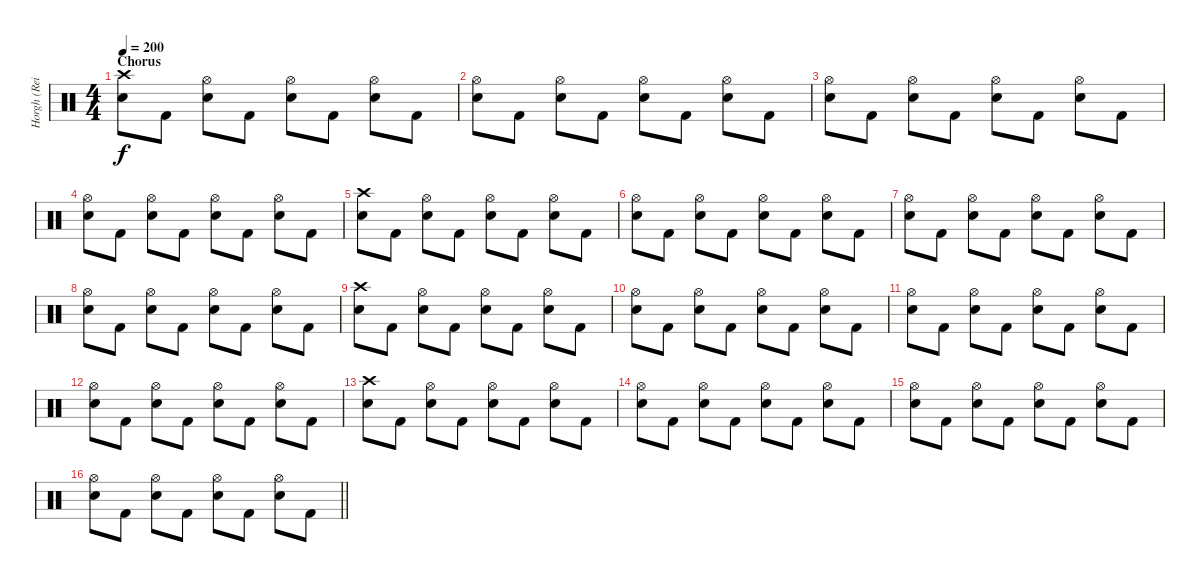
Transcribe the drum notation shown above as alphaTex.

\track ("Horgh (Reidar Horghagen)" "Horgh (Rei") {instrument percussion}
\staff {score}
\articulation defaults
\ts (4 4)
\section ("" "Chorus")
\tempo 200
\clef neutral
\ks c
("Crash high (hit)" "Snare (hit) 2").8{dy f} "Kick (hit) 2".8 ("Hi-Hat (open)" "Snare (hit) 2").8 "Kick (hit) 2".8 ("Hi-Hat (open)" "Snare (hit) 2").8 "Kick (hit) 2".8 ("Hi-Hat (open)" "Snare (hit) 2").8 "Kick (hit) 2".8 |
("Hi-Hat (open)" "Snare (hit) 2").8 "Kick (hit) 2".8 ("Hi-Hat (open)" "Snare (hit) 2").8 "Kick (hit) 2".8 ("Hi-Hat (open)" "Snare (hit) 2").8 "Kick (hit) 2".8 ("Hi-Hat (open)" "Snare (hit) 2").8 "Kick (hit) 2".8 |
("Hi-Hat (open)" "Snare (hit) 2").8 "Kick (hit) 2".8 ("Hi-Hat (open)" "Snare (hit) 2").8 "Kick (hit) 2".8 ("Hi-Hat (open)" "Snare (hit) 2").8 "Kick (hit) 2".8 ("Hi-Hat (open)" "Snare (hit) 2").8 "Kick (hit) 2".8 |
("Hi-Hat (open)" "Snare (hit) 2").8 "Kick (hit) 2".8 ("Hi-Hat (open)" "Snare (hit) 2").8 "Kick (hit) 2".8 ("Hi-Hat (open)" "Snare (hit) 2").8 "Kick (hit) 2".8 ("Hi-Hat (open)" "Snare (hit) 2").8 "Kick (hit) 2".8 |
("Crash high (hit)" "Snare (hit) 2").8 "Kick (hit) 2".8 ("Hi-Hat (open)" "Snare (hit) 2").8 "Kick (hit) 2".8 ("Hi-Hat (open)" "Snare (hit) 2").8 "Kick (hit) 2".8 ("Hi-Hat (open)" "Snare (hit) 2").8 "Kick (hit) 2".8 |
("Hi-Hat (open)" "Snare (hit) 2").8 "Kick (hit) 2".8 ("Hi-Hat (open)" "Snare (hit) 2").8 "Kick (hit) 2".8 ("Hi-Hat (open)" "Snare (hit) 2").8 "Kick (hit) 2".8 ("Hi-Hat (open)" "Snare (hit) 2").8 "Kick (hit) 2".8 |
("Hi-Hat (open)" "Snare (hit) 2").8 "Kick (hit) 2".8 ("Hi-Hat (open)" "Snare (hit) 2").8 "Kick (hit) 2".8 ("Hi-Hat (open)" "Snare (hit) 2").8 "Kick (hit) 2".8 ("Hi-Hat (open)" "Snare (hit) 2").8 "Kick (hit) 2".8 |
("Hi-Hat (open)" "Snare (hit) 2").8 "Kick (hit) 2".8 ("Hi-Hat (open)" "Snare (hit) 2").8 "Kick (hit) 2".8 ("Hi-Hat (open)" "Snare (hit) 2").8 "Kick (hit) 2".8 ("Hi-Hat (open)" "Snare (hit) 2").8 "Kick (hit) 2".8 |
("Crash high (hit)" "Snare (hit) 2").8 "Kick (hit) 2".8 ("Hi-Hat (open)" "Snare (hit) 2").8 "Kick (hit) 2".8 ("Hi-Hat (open)" "Snare (hit) 2").8 "Kick (hit) 2".8 ("Hi-Hat (open)" "Snare (hit) 2").8 "Kick (hit) 2".8 |
("Hi-Hat (open)" "Snare (hit) 2").8 "Kick (hit) 2".8 ("Hi-Hat (open)" "Snare (hit) 2").8 "Kick (hit) 2".8 ("Hi-Hat (open)" "Snare (hit) 2").8 "Kick (hit) 2".8 ("Hi-Hat (open)" "Snare (hit) 2").8 "Kick (hit) 2".8 |
("Hi-Hat (open)" "Snare (hit) 2").8 "Kick (hit) 2".8 ("Hi-Hat (open)" "Snare (hit) 2").8 "Kick (hit) 2".8 ("Hi-Hat (open)" "Snare (hit) 2").8 "Kick (hit) 2".8 ("Hi-Hat (open)" "Snare (hit) 2").8 "Kick (hit) 2".8 |
("Hi-Hat (open)" "Snare (hit) 2").8 "Kick (hit) 2".8 ("Hi-Hat (open)" "Snare (hit) 2").8 "Kick (hit) 2".8 ("Hi-Hat (open)" "Snare (hit) 2").8 "Kick (hit) 2".8 ("Hi-Hat (open)" "Snare (hit) 2").8 "Kick (hit) 2".8 |
("Crash high (hit)" "Snare (hit) 2").8 "Kick (hit) 2".8 ("Hi-Hat (open)" "Snare (hit) 2").8 "Kick (hit) 2".8 ("Hi-Hat (open)" "Snare (hit) 2").8 "Kick (hit) 2".8 ("Hi-Hat (open)" "Snare (hit) 2").8 "Kick (hit) 2".8 |
("Hi-Hat (open)" "Snare (hit) 2").8 "Kick (hit) 2".8 ("Hi-Hat (open)" "Snare (hit) 2").8 "Kick (hit) 2".8 ("Hi-Hat (open)" "Snare (hit) 2").8 "Kick (hit) 2".8 ("Hi-Hat (open)" "Snare (hit) 2").8 "Kick (hit) 2".8 |
("Hi-Hat (open)" "Snare (hit) 2").8 "Kick (hit) 2".8 ("Hi-Hat (open)" "Snare (hit) 2").8 "Kick (hit) 2".8 ("Hi-Hat (open)" "Snare (hit) 2").8 "Kick (hit) 2".8 ("Hi-Hat (open)" "Snare (hit) 2").8 "Kick (hit) 2".8 |
\barLineRight lightlight
("Hi-Hat (open)" "Snare (hit) 2").8 "Kick (hit) 2".8 ("Hi-Hat (open)" "Snare (hit) 2").8 "Kick (hit) 2".8 ("Hi-Hat (open)" "Snare (hit) 2").8 "Kick (hit) 2".8 ("Hi-Hat (open)" "Snare (hit) 2").8 "Kick (hit) 2".8
